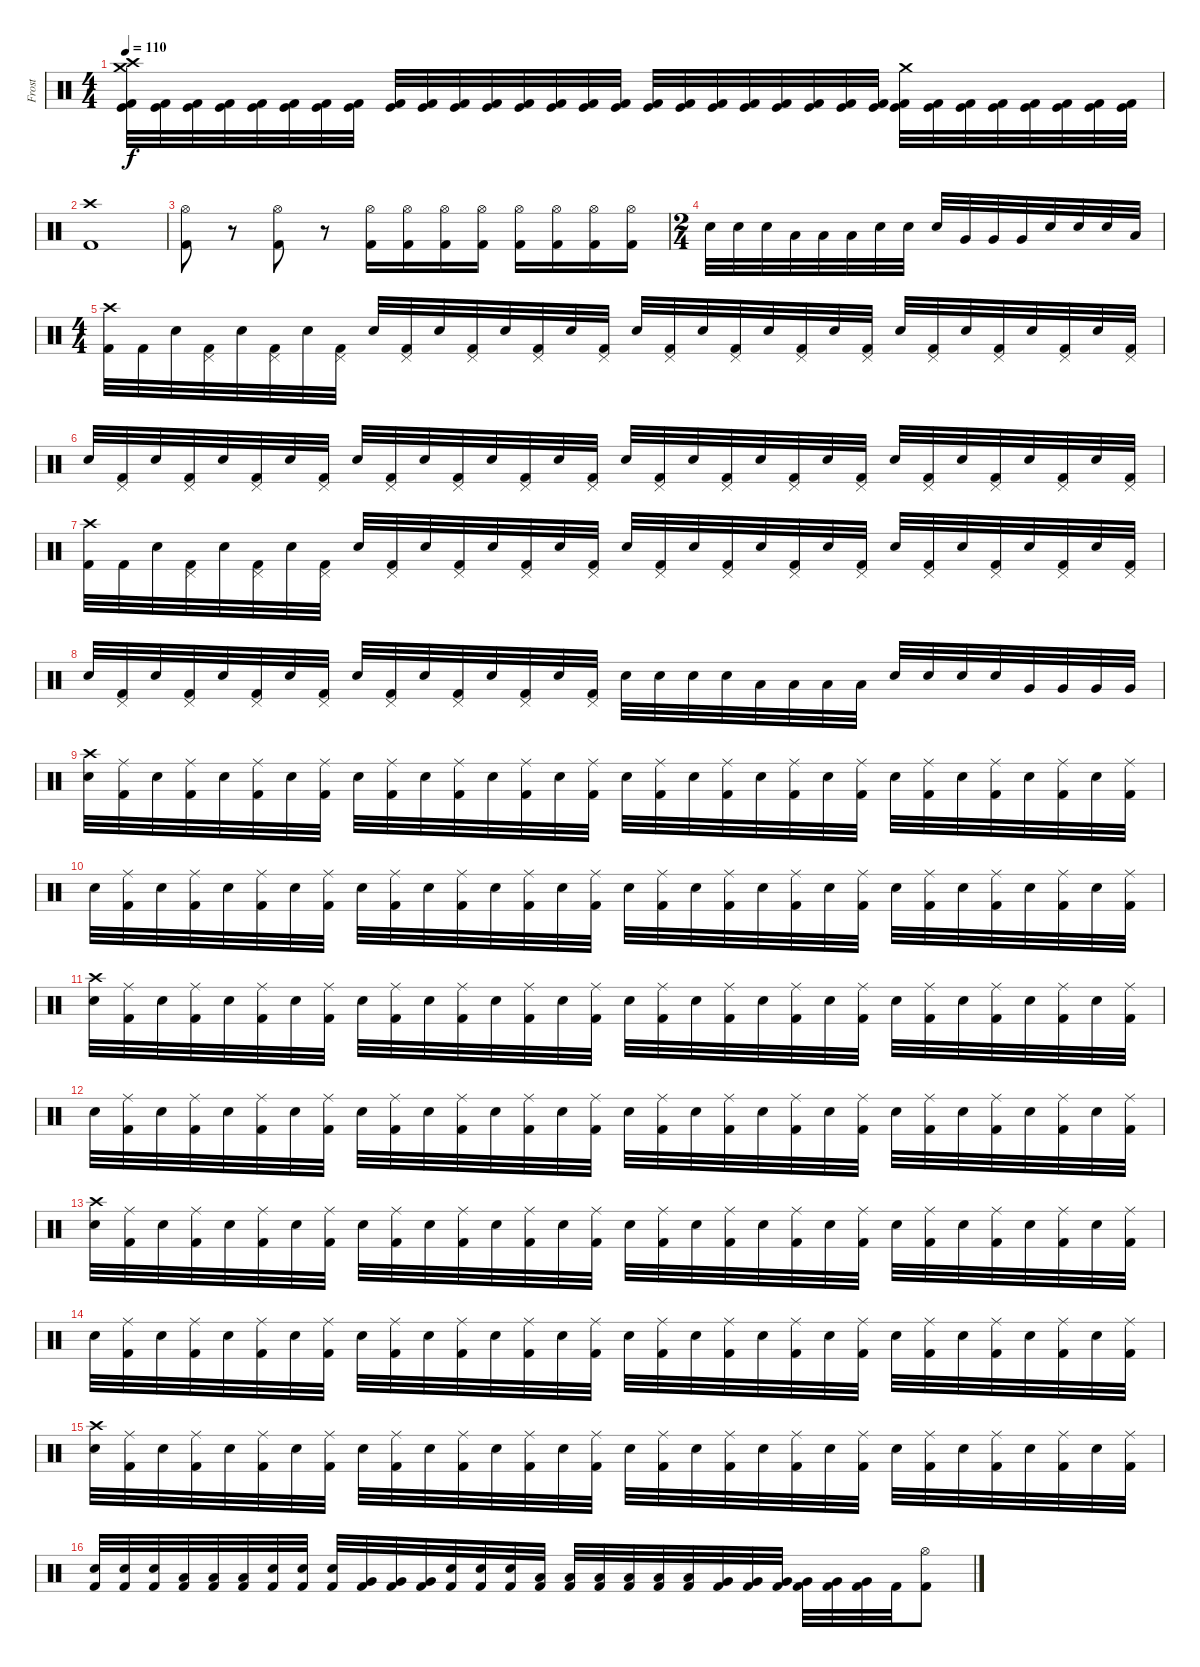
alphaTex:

\track ("Frost" "Frost") {instrument percussion}
\staff {score}
\articulation defaults
\ts (4 4)
\tempo 110
\clef neutral
\ks c
("Crash medium (hit)" "Crash high (hit)" "Kick (hit)" "Kick (hit) 2").32{dy f} ("Kick (hit)" "Kick (hit) 2").32 ("Kick (hit)" "Kick (hit) 2").32 ("Kick (hit)" "Kick (hit) 2").32 ("Kick (hit)" "Kick (hit) 2").32 ("Kick (hit)" "Kick (hit) 2").32 ("Kick (hit)" "Kick (hit) 2").32 ("Kick (hit)" "Kick (hit) 2").32 ("Kick (hit)" "Kick (hit) 2").32 ("Kick (hit)" "Kick (hit) 2").32 ("Kick (hit)" "Kick (hit) 2").32 ("Kick (hit)" "Kick (hit) 2").32 ("Kick (hit)" "Kick (hit) 2").32 ("Kick (hit)" "Kick (hit) 2").32 ("Kick (hit)" "Kick (hit) 2").32 ("Kick (hit)" "Kick (hit) 2").32 ("Kick (hit)" "Kick (hit) 2").32 ("Kick (hit)" "Kick (hit) 2").32 ("Kick (hit)" "Kick (hit) 2").32 ("Kick (hit)" "Kick (hit) 2").32 ("Kick (hit)" "Kick (hit) 2").32 ("Kick (hit)" "Kick (hit) 2").32 ("Kick (hit)" "Kick (hit) 2").32 ("Kick (hit)" "Kick (hit) 2").32 ("Crash medium (hit)" "Kick (hit)" "Kick (hit) 2").32 ("Kick (hit)" "Kick (hit) 2").32 ("Kick (hit)" "Kick (hit) 2").32 ("Kick (hit)" "Kick (hit) 2").32 ("Kick (hit)" "Kick (hit) 2").32 ("Kick (hit)" "Kick (hit) 2").32 ("Kick (hit)" "Kick (hit) 2").32 ("Kick (hit)" "Kick (hit) 2").32 |
("Crash high (hit)" "Kick (hit) 2").1 |
("Hi-Hat (open)" "Kick (hit) 2").8 r.8 ("Hi-Hat (open)" "Kick (hit) 2").8 r.8 ("Hi-Hat (open)" "Kick (hit) 2").16 ("Hi-Hat (open)" "Kick (hit) 2").16 ("Hi-Hat (open)" "Kick (hit) 2").16 ("Hi-Hat (open)" "Kick (hit) 2").16 ("Hi-Hat (open)" "Kick (hit) 2").16 ("Hi-Hat (open)" "Kick (hit) 2").16 ("Hi-Hat (open)" "Kick (hit) 2").16 ("Hi-Hat (open)" "Kick (hit) 2").16 |
\ts (2 4)
"Snare (hit) 2".32 "Snare (hit) 2".32 "Snare (hit) 2".32 "Low Tom (hit)".32 "Low Tom (hit)".32 "Low Tom (hit)".32 "Snare (hit) 2".32 "Snare (hit) 2".32 "Snare (hit) 2".32 "Very Low Tom (hit)".32 "Very Low Tom (hit)".32 "Very Low Tom (hit)".32 "Snare (hit) 2".32 "Snare (hit) 2".32 "Snare (hit) 2".32 "Low Tom (hit)".32 |
\ts (4 4)
("Crash high (hit)" "Kick (hit) 2").32 "Kick (hit) 2".32 "Snare (hit) 2".32 ("Pedal Hi-Hat (hit)" "Kick (hit) 2").32 "Snare (hit) 2".32 ("Pedal Hi-Hat (hit)" "Kick (hit) 2").32 "Snare (hit) 2".32 ("Pedal Hi-Hat (hit)" "Kick (hit) 2").32 "Snare (hit) 2".32 ("Pedal Hi-Hat (hit)" "Kick (hit) 2").32 "Snare (hit) 2".32 ("Pedal Hi-Hat (hit)" "Kick (hit) 2").32 "Snare (hit) 2".32 ("Pedal Hi-Hat (hit)" "Kick (hit) 2").32 "Snare (hit) 2".32 ("Pedal Hi-Hat (hit)" "Kick (hit) 2").32 "Snare (hit) 2".32 ("Pedal Hi-Hat (hit)" "Kick (hit) 2").32 "Snare (hit) 2".32 ("Pedal Hi-Hat (hit)" "Kick (hit) 2").32 "Snare (hit) 2".32 ("Pedal Hi-Hat (hit)" "Kick (hit) 2").32 "Snare (hit) 2".32 ("Pedal Hi-Hat (hit)" "Kick (hit) 2").32 "Snare (hit) 2".32 ("Pedal Hi-Hat (hit)" "Kick (hit) 2").32 "Snare (hit) 2".32 ("Pedal Hi-Hat (hit)" "Kick (hit) 2").32 "Snare (hit) 2".32 ("Pedal Hi-Hat (hit)" "Kick (hit) 2").32 "Snare (hit) 2".32 ("Pedal Hi-Hat (hit)" "Kick (hit) 2").32 |
"Snare (hit) 2".32 ("Pedal Hi-Hat (hit)" "Kick (hit) 2").32 "Snare (hit) 2".32 ("Pedal Hi-Hat (hit)" "Kick (hit) 2").32 "Snare (hit) 2".32 ("Pedal Hi-Hat (hit)" "Kick (hit) 2").32 "Snare (hit) 2".32 ("Pedal Hi-Hat (hit)" "Kick (hit) 2").32 "Snare (hit) 2".32 ("Pedal Hi-Hat (hit)" "Kick (hit) 2").32 "Snare (hit) 2".32 ("Pedal Hi-Hat (hit)" "Kick (hit) 2").32 "Snare (hit) 2".32 ("Pedal Hi-Hat (hit)" "Kick (hit) 2").32 "Snare (hit) 2".32 ("Pedal Hi-Hat (hit)" "Kick (hit) 2").32 "Snare (hit) 2".32 ("Pedal Hi-Hat (hit)" "Kick (hit) 2").32 "Snare (hit) 2".32 ("Pedal Hi-Hat (hit)" "Kick (hit) 2").32 "Snare (hit) 2".32 ("Pedal Hi-Hat (hit)" "Kick (hit) 2").32 "Snare (hit) 2".32 ("Pedal Hi-Hat (hit)" "Kick (hit) 2").32 "Snare (hit) 2".32 ("Pedal Hi-Hat (hit)" "Kick (hit) 2").32 "Snare (hit) 2".32 ("Pedal Hi-Hat (hit)" "Kick (hit) 2").32 "Snare (hit) 2".32 ("Pedal Hi-Hat (hit)" "Kick (hit) 2").32 "Snare (hit) 2".32 ("Pedal Hi-Hat (hit)" "Kick (hit) 2").32 |
("Crash high (hit)" "Kick (hit) 2").32 "Kick (hit) 2".32 "Snare (hit) 2".32 ("Pedal Hi-Hat (hit)" "Kick (hit) 2").32 "Snare (hit) 2".32 ("Pedal Hi-Hat (hit)" "Kick (hit) 2").32 "Snare (hit) 2".32 ("Pedal Hi-Hat (hit)" "Kick (hit) 2").32 "Snare (hit) 2".32 ("Pedal Hi-Hat (hit)" "Kick (hit) 2").32 "Snare (hit) 2".32 ("Pedal Hi-Hat (hit)" "Kick (hit) 2").32 "Snare (hit) 2".32 ("Pedal Hi-Hat (hit)" "Kick (hit) 2").32 "Snare (hit) 2".32 ("Pedal Hi-Hat (hit)" "Kick (hit) 2").32 "Snare (hit) 2".32 ("Pedal Hi-Hat (hit)" "Kick (hit) 2").32 "Snare (hit) 2".32 ("Pedal Hi-Hat (hit)" "Kick (hit) 2").32 "Snare (hit) 2".32 ("Pedal Hi-Hat (hit)" "Kick (hit) 2").32 "Snare (hit) 2".32 ("Pedal Hi-Hat (hit)" "Kick (hit) 2").32 "Snare (hit) 2".32 ("Pedal Hi-Hat (hit)" "Kick (hit) 2").32 "Snare (hit) 2".32 ("Pedal Hi-Hat (hit)" "Kick (hit) 2").32 "Snare (hit) 2".32 ("Pedal Hi-Hat (hit)" "Kick (hit) 2").32 "Snare (hit) 2".32 ("Pedal Hi-Hat (hit)" "Kick (hit) 2").32 |
"Snare (hit) 2".32 ("Pedal Hi-Hat (hit)" "Kick (hit) 2").32 "Snare (hit) 2".32 ("Pedal Hi-Hat (hit)" "Kick (hit) 2").32 "Snare (hit) 2".32 ("Pedal Hi-Hat (hit)" "Kick (hit) 2").32 "Snare (hit) 2".32 ("Pedal Hi-Hat (hit)" "Kick (hit) 2").32 "Snare (hit) 2".32 ("Pedal Hi-Hat (hit)" "Kick (hit) 2").32 "Snare (hit) 2".32 ("Pedal Hi-Hat (hit)" "Kick (hit) 2").32 "Snare (hit) 2".32 ("Pedal Hi-Hat (hit)" "Kick (hit) 2").32 "Snare (hit) 2".32 ("Pedal Hi-Hat (hit)" "Kick (hit) 2").32 "Snare (hit) 2".32 "Snare (hit) 2".32 "Snare (hit) 2".32 "Snare (hit) 2".32 "Low Tom (hit)".32 "Low Tom (hit)".32 "Low Tom (hit)".32 "Low Tom (hit)".32 "Snare (hit) 2".32 "Snare (hit) 2".32 "Snare (hit) 2".32 "Snare (hit) 2".32 "Very Low Tom (hit)".32 "Very Low Tom (hit)".32 "Very Low Tom (hit)".32 "Very Low Tom (hit)".32 |
("Crash high (hit)" "Snare (hit) 2").32 ("Ride (middle)" "Kick (hit) 2").32 "Snare (hit) 2".32 ("Ride (middle)" "Kick (hit) 2").32 "Snare (hit) 2".32 ("Ride (middle)" "Kick (hit) 2").32 "Snare (hit) 2".32 ("Ride (middle)" "Kick (hit) 2").32 "Snare (hit) 2".32 ("Ride (middle)" "Kick (hit) 2").32 "Snare (hit) 2".32 ("Ride (middle)" "Kick (hit) 2").32 "Snare (hit) 2".32 ("Ride (middle)" "Kick (hit) 2").32 "Snare (hit) 2".32 ("Ride (middle)" "Kick (hit) 2").32 "Snare (hit) 2".32 ("Ride (middle)" "Kick (hit) 2").32 "Snare (hit) 2".32 ("Ride (middle)" "Kick (hit) 2").32 "Snare (hit) 2".32 ("Ride (middle)" "Kick (hit) 2").32 "Snare (hit) 2".32 ("Ride (middle)" "Kick (hit) 2").32 "Snare (hit) 2".32 ("Ride (middle)" "Kick (hit) 2").32 "Snare (hit) 2".32 ("Ride (middle)" "Kick (hit) 2").32 "Snare (hit) 2".32 ("Ride (middle)" "Kick (hit) 2").32 "Snare (hit) 2".32 ("Ride (middle)" "Kick (hit) 2").32 |
"Snare (hit) 2".32 ("Ride (middle)" "Kick (hit) 2").32 "Snare (hit) 2".32 ("Ride (middle)" "Kick (hit) 2").32 "Snare (hit) 2".32 ("Ride (middle)" "Kick (hit) 2").32 "Snare (hit) 2".32 ("Ride (middle)" "Kick (hit) 2").32 "Snare (hit) 2".32 ("Ride (middle)" "Kick (hit) 2").32 "Snare (hit) 2".32 ("Ride (middle)" "Kick (hit) 2").32 "Snare (hit) 2".32 ("Ride (middle)" "Kick (hit) 2").32 "Snare (hit) 2".32 ("Ride (middle)" "Kick (hit) 2").32 "Snare (hit) 2".32 ("Ride (middle)" "Kick (hit) 2").32 "Snare (hit) 2".32 ("Ride (middle)" "Kick (hit) 2").32 "Snare (hit) 2".32 ("Ride (middle)" "Kick (hit) 2").32 "Snare (hit) 2".32 ("Ride (middle)" "Kick (hit) 2").32 "Snare (hit) 2".32 ("Ride (middle)" "Kick (hit) 2").32 "Snare (hit) 2".32 ("Ride (middle)" "Kick (hit) 2").32 "Snare (hit) 2".32 ("Ride (middle)" "Kick (hit) 2").32 "Snare (hit) 2".32 ("Ride (middle)" "Kick (hit) 2").32 |
("Crash high (hit)" "Snare (hit) 2").32 ("Ride (middle)" "Kick (hit) 2").32 "Snare (hit) 2".32 ("Ride (middle)" "Kick (hit) 2").32 "Snare (hit) 2".32 ("Ride (middle)" "Kick (hit) 2").32 "Snare (hit) 2".32 ("Ride (middle)" "Kick (hit) 2").32 "Snare (hit) 2".32 ("Ride (middle)" "Kick (hit) 2").32 "Snare (hit) 2".32 ("Ride (middle)" "Kick (hit) 2").32 "Snare (hit) 2".32 ("Ride (middle)" "Kick (hit) 2").32 "Snare (hit) 2".32 ("Ride (middle)" "Kick (hit) 2").32 "Snare (hit) 2".32 ("Ride (middle)" "Kick (hit) 2").32 "Snare (hit) 2".32 ("Ride (middle)" "Kick (hit) 2").32 "Snare (hit) 2".32 ("Ride (middle)" "Kick (hit) 2").32 "Snare (hit) 2".32 ("Ride (middle)" "Kick (hit) 2").32 "Snare (hit) 2".32 ("Ride (middle)" "Kick (hit) 2").32 "Snare (hit) 2".32 ("Ride (middle)" "Kick (hit) 2").32 "Snare (hit) 2".32 ("Ride (middle)" "Kick (hit) 2").32 "Snare (hit) 2".32 ("Ride (middle)" "Kick (hit) 2").32 |
"Snare (hit) 2".32 ("Ride (middle)" "Kick (hit) 2").32 "Snare (hit) 2".32 ("Ride (middle)" "Kick (hit) 2").32 "Snare (hit) 2".32 ("Ride (middle)" "Kick (hit) 2").32 "Snare (hit) 2".32 ("Ride (middle)" "Kick (hit) 2").32 "Snare (hit) 2".32 ("Ride (middle)" "Kick (hit) 2").32 "Snare (hit) 2".32 ("Ride (middle)" "Kick (hit) 2").32 "Snare (hit) 2".32 ("Ride (middle)" "Kick (hit) 2").32 "Snare (hit) 2".32 ("Ride (middle)" "Kick (hit) 2").32 "Snare (hit) 2".32 ("Ride (middle)" "Kick (hit) 2").32 "Snare (hit) 2".32 ("Ride (middle)" "Kick (hit) 2").32 "Snare (hit) 2".32 ("Ride (middle)" "Kick (hit) 2").32 "Snare (hit) 2".32 ("Ride (middle)" "Kick (hit) 2").32 "Snare (hit) 2".32 ("Ride (middle)" "Kick (hit) 2").32 "Snare (hit) 2".32 ("Ride (middle)" "Kick (hit) 2").32 "Snare (hit) 2".32 ("Ride (middle)" "Kick (hit) 2").32 "Snare (hit) 2".32 ("Ride (middle)" "Kick (hit) 2").32 |
("Crash high (hit)" "Snare (hit) 2").32 ("Ride (middle)" "Kick (hit) 2").32 "Snare (hit) 2".32 ("Ride (middle)" "Kick (hit) 2").32 "Snare (hit) 2".32 ("Ride (middle)" "Kick (hit) 2").32 "Snare (hit) 2".32 ("Ride (middle)" "Kick (hit) 2").32 "Snare (hit) 2".32 ("Ride (middle)" "Kick (hit) 2").32 "Snare (hit) 2".32 ("Ride (middle)" "Kick (hit) 2").32 "Snare (hit) 2".32 ("Ride (middle)" "Kick (hit) 2").32 "Snare (hit) 2".32 ("Ride (middle)" "Kick (hit) 2").32 "Snare (hit) 2".32 ("Ride (middle)" "Kick (hit) 2").32 "Snare (hit) 2".32 ("Ride (middle)" "Kick (hit) 2").32 "Snare (hit) 2".32 ("Ride (middle)" "Kick (hit) 2").32 "Snare (hit) 2".32 ("Ride (middle)" "Kick (hit) 2").32 "Snare (hit) 2".32 ("Ride (middle)" "Kick (hit) 2").32 "Snare (hit) 2".32 ("Ride (middle)" "Kick (hit) 2").32 "Snare (hit) 2".32 ("Ride (middle)" "Kick (hit) 2").32 "Snare (hit) 2".32 ("Ride (middle)" "Kick (hit) 2").32 |
"Snare (hit) 2".32 ("Ride (middle)" "Kick (hit) 2").32 "Snare (hit) 2".32 ("Ride (middle)" "Kick (hit) 2").32 "Snare (hit) 2".32 ("Ride (middle)" "Kick (hit) 2").32 "Snare (hit) 2".32 ("Ride (middle)" "Kick (hit) 2").32 "Snare (hit) 2".32 ("Ride (middle)" "Kick (hit) 2").32 "Snare (hit) 2".32 ("Ride (middle)" "Kick (hit) 2").32 "Snare (hit) 2".32 ("Ride (middle)" "Kick (hit) 2").32 "Snare (hit) 2".32 ("Ride (middle)" "Kick (hit) 2").32 "Snare (hit) 2".32 ("Ride (middle)" "Kick (hit) 2").32 "Snare (hit) 2".32 ("Ride (middle)" "Kick (hit) 2").32 "Snare (hit) 2".32 ("Ride (middle)" "Kick (hit) 2").32 "Snare (hit) 2".32 ("Ride (middle)" "Kick (hit) 2").32 "Snare (hit) 2".32 ("Ride (middle)" "Kick (hit) 2").32 "Snare (hit) 2".32 ("Ride (middle)" "Kick (hit) 2").32 "Snare (hit) 2".32 ("Ride (middle)" "Kick (hit) 2").32 "Snare (hit) 2".32 ("Ride (middle)" "Kick (hit) 2").32 |
("Crash high (hit)" "Snare (hit) 2").32 ("Ride (middle)" "Kick (hit) 2").32 "Snare (hit) 2".32 ("Ride (middle)" "Kick (hit) 2").32 "Snare (hit) 2".32 ("Ride (middle)" "Kick (hit) 2").32 "Snare (hit) 2".32 ("Ride (middle)" "Kick (hit) 2").32 "Snare (hit) 2".32 ("Ride (middle)" "Kick (hit) 2").32 "Snare (hit) 2".32 ("Ride (middle)" "Kick (hit) 2").32 "Snare (hit) 2".32 ("Ride (middle)" "Kick (hit) 2").32 "Snare (hit) 2".32 ("Ride (middle)" "Kick (hit) 2").32 "Snare (hit) 2".32 ("Ride (middle)" "Kick (hit) 2").32 "Snare (hit) 2".32 ("Ride (middle)" "Kick (hit) 2").32 "Snare (hit) 2".32 ("Ride (middle)" "Kick (hit) 2").32 "Snare (hit) 2".32 ("Ride (middle)" "Kick (hit) 2").32 "Snare (hit) 2".32 ("Ride (middle)" "Kick (hit) 2").32 "Snare (hit) 2".32 ("Ride (middle)" "Kick (hit) 2").32 "Snare (hit) 2".32 ("Ride (middle)" "Kick (hit) 2").32 "Snare (hit) 2".32 ("Ride (middle)" "Kick (hit) 2").32 |
("Snare (hit) 2" "Kick (hit) 2").32 ("Snare (hit) 2" "Kick (hit) 2").32 ("Snare (hit) 2" "Kick (hit) 2").32 ("Low Tom (hit)" "Kick (hit) 2").32 ("Low Tom (hit)" "Kick (hit) 2").32 ("Low Tom (hit)" "Kick (hit) 2").32 ("Snare (hit) 2" "Kick (hit) 2").32 ("Snare (hit) 2" "Kick (hit) 2").32 ("Snare (hit) 2" "Kick (hit) 2").32 ("Very Low Tom (hit)" "Kick (hit) 2").32 ("Very Low Tom (hit)" "Kick (hit) 2").32 ("Very Low Tom (hit)" "Kick (hit) 2").32 ("Snare (hit) 2" "Kick (hit) 2").32 ("Snare (hit) 2" "Kick (hit) 2").32 ("Snare (hit) 2" "Kick (hit) 2").32 ("Low Tom (hit)" "Kick (hit) 2").32 ("Low Tom (hit)" "Kick (hit) 2").32 ("Low Tom (hit)" "Kick (hit) 2").32 ("Low Tom (hit)" "Kick (hit) 2").32 ("Low Tom (hit)" "Kick (hit) 2").32 ("Low Tom (hit)" "Kick (hit) 2").32 ("Very Low Tom (hit)" "Kick (hit) 2").32 ("Very Low Tom (hit)" "Kick (hit) 2").32 ("Very Low Tom (hit)" "Kick (hit) 2").32 ("Very Low Tom (hit)" "Kick (hit) 2").32 ("Very Low Tom (hit)" "Kick (hit) 2").32 ("Very Low Tom (hit)" "Kick (hit) 2").32 "Kick (hit) 2".32 ("Hi-Hat (open)" "Kick (hit) 2").8
